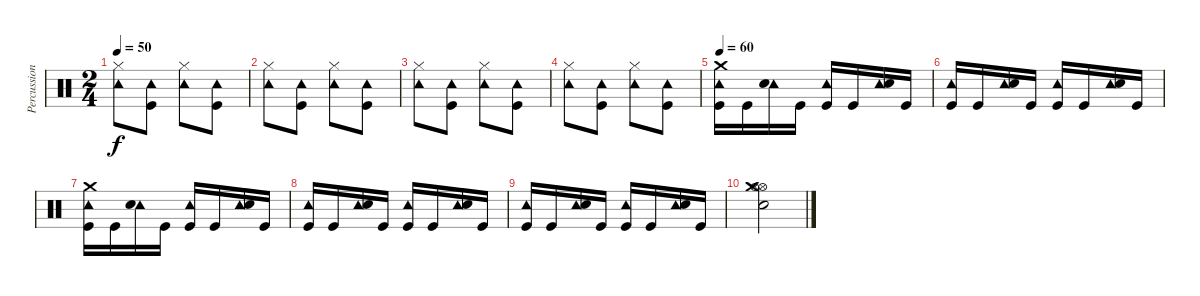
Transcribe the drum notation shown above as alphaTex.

\track ("Percussion" "Percussion") {instrument percussion}
\staff {score}
\articulation defaults
\ts (2 4)
\tempo 60
\tempo 50
\clef neutral
\ks c
("Tambourine (hit)" "Hi-Hat (closed)").8{dy f} ("Tambourine (hit)" "Kick (hit)").8 ("Tambourine (hit)" "Hi-Hat (closed)").8 ("Tambourine (hit)" "Kick (hit)").8 |
("Tambourine (hit)" "Hi-Hat (closed)").8 ("Tambourine (hit)" "Kick (hit)").8 ("Tambourine (hit)" "Hi-Hat (closed)").8 ("Tambourine (hit)" "Kick (hit)").8 |
("Tambourine (hit)" "Hi-Hat (closed)").8 ("Tambourine (hit)" "Kick (hit)").8 ("Tambourine (hit)" "Hi-Hat (closed)").8 ("Tambourine (hit)" "Kick (hit)").8 |
("Tambourine (hit)" "Hi-Hat (closed)").8 ("Tambourine (hit)" "Kick (hit)").8 ("Tambourine (hit)" "Hi-Hat (closed)").8 ("Tambourine (hit)" "Kick (hit)").8 |
\tempo 60
("Tambourine (hit)" "Crash medium (hit)" "Kick (hit)").16 "Kick (hit)".16 ("Tambourine (hit)" "Electric Snare (hit)").16 "Kick (hit)".16 ("Tambourine (hit)" "Kick (hit)").16 "Kick (hit)".16 ("Tambourine (hit)" "Electric Snare (hit)").16 "Kick (hit)".16 |
("Tambourine (hit)" "Kick (hit)").16 "Kick (hit)".16 ("Tambourine (hit)" "Electric Snare (hit)").16 "Kick (hit)".16 ("Tambourine (hit)" "Kick (hit)").16 "Kick (hit)".16 ("Tambourine (hit)" "Electric Snare (hit)").16 "Kick (hit)".16 |
("Tambourine (hit)" "Crash medium (hit)" "Kick (hit)").16 "Kick (hit)".16 ("Tambourine (hit)" "Electric Snare (hit)").16 "Kick (hit)".16 ("Tambourine (hit)" "Kick (hit)").16 "Kick (hit)".16 ("Tambourine (hit)" "Electric Snare (hit)").16 "Kick (hit)".16 |
("Tambourine (hit)" "Kick (hit)").16 "Kick (hit)".16 ("Tambourine (hit)" "Electric Snare (hit)").16 "Kick (hit)".16 ("Tambourine (hit)" "Kick (hit)").16 "Kick (hit)".16 ("Tambourine (hit)" "Electric Snare (hit)").16 "Kick (hit)".16 |
("Tambourine (hit)" "Kick (hit)").16 "Kick (hit)".16 ("Tambourine (hit)" "Electric Snare (hit)").16 "Kick (hit)".16 ("Tambourine (hit)" "Kick (hit)").16 "Kick (hit)".16 ("Tambourine (hit)" "Electric Snare (hit)").16 "Kick (hit)".16 |
("Hi-Hat (open)" "Hi-Hat (open)" "Electric Snare (hit)" "Crash medium (hit)").2
